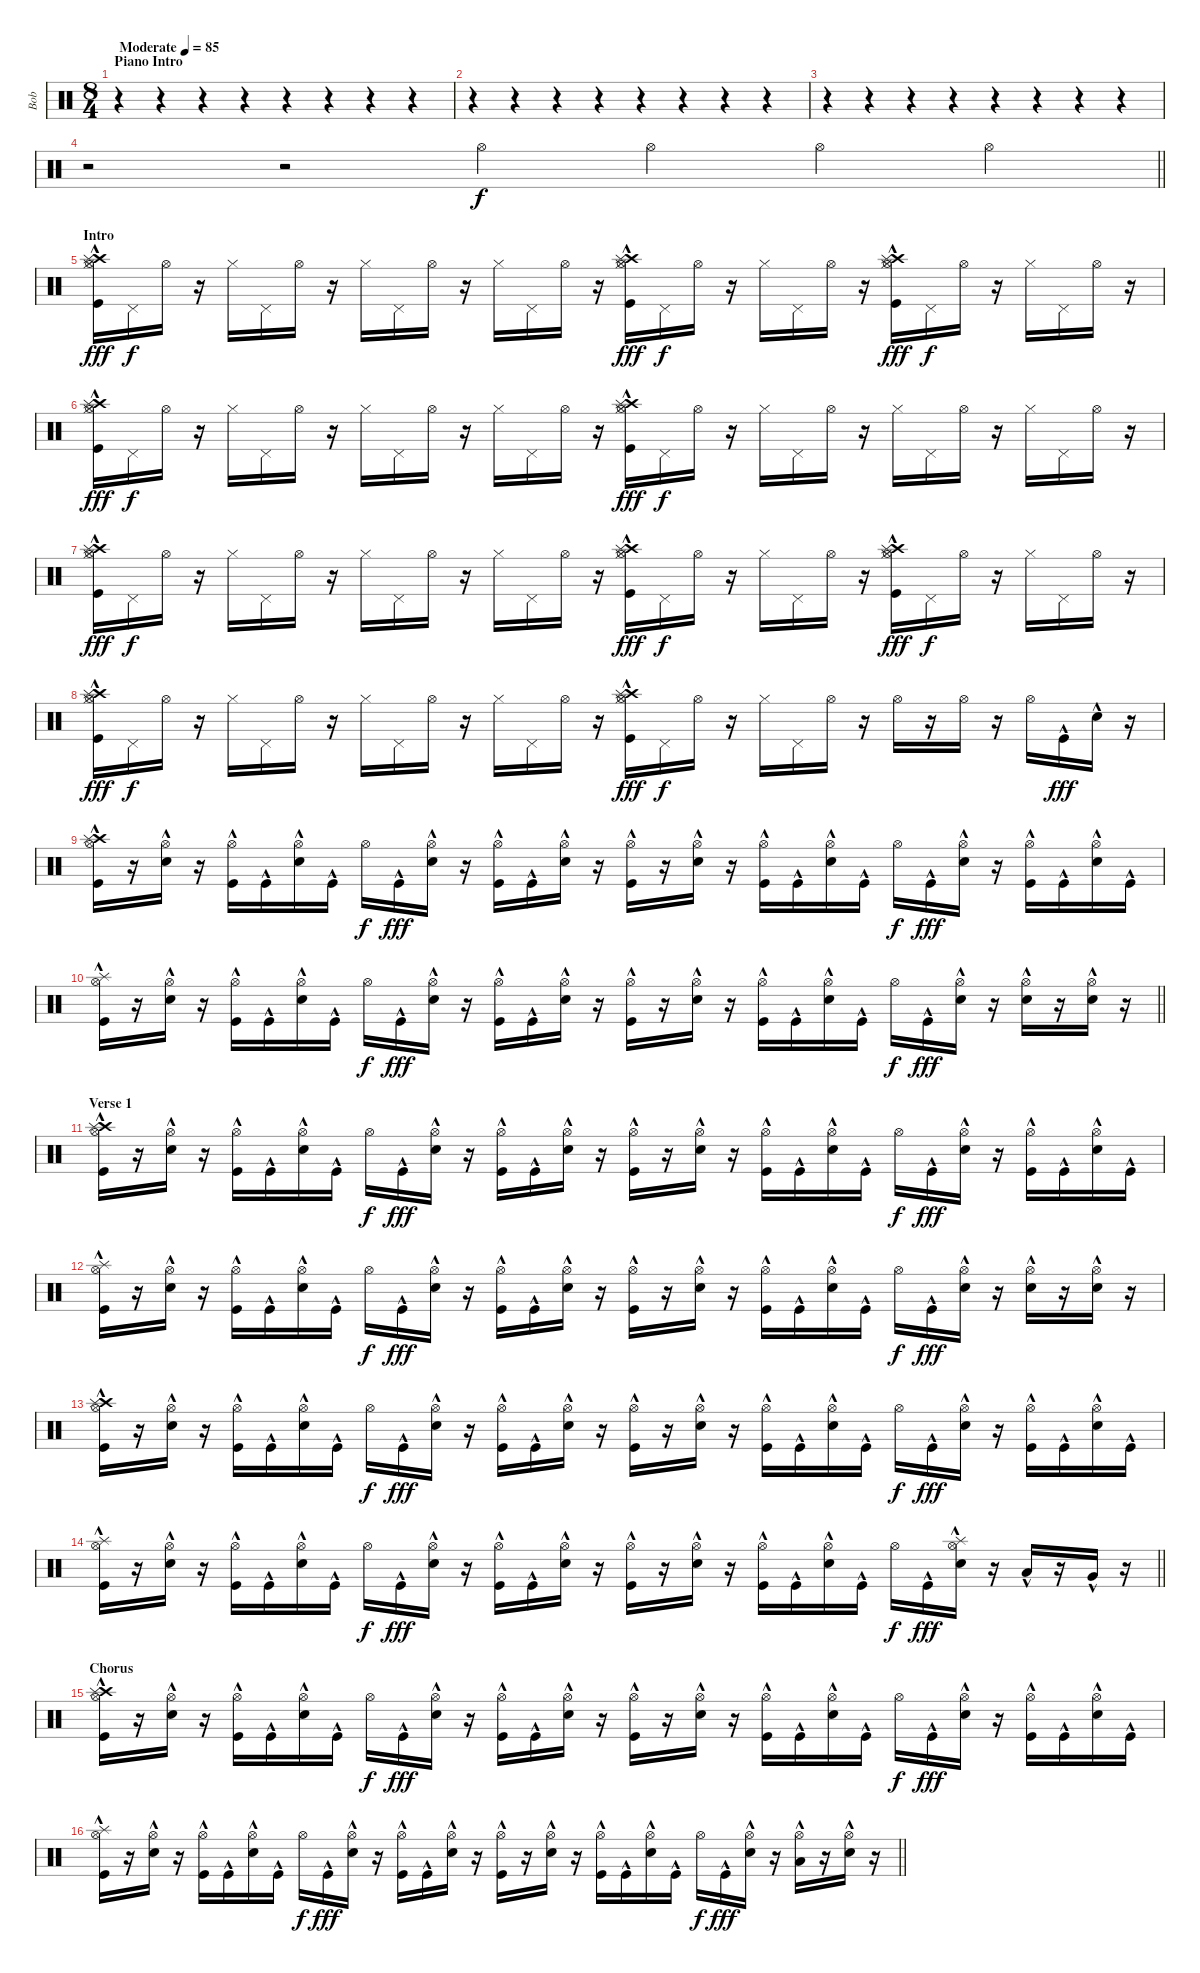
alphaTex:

\track ("Bob" "Bob") {instrument percussion}
\staff {score}
\articulation defaults
\ts (8 4)
\section ("" "Piano Intro")
\tempo (85 "Moderate")
\clef neutral
\ks c
r.4{dy f} r.4 r.4 r.4 r.4 r.4 r.4 r.4 |
r.4 r.4 r.4 r.4 r.4 r.4 r.4 r.4 |
r.4 r.4 r.4 r.4 r.4 r.4 r.4 r.4 |
\barLineRight lightlight
r.2 r.2 "Hi-Hat (open)".4 "Hi-Hat (open)".4 "Hi-Hat (open)".4 "Hi-Hat (open)".4 |
\section ("" "Intro")
("Crash high (hit)" "Splash (hit)"{hac} "Hi-Hat (open)" "Hi-Hat (closed)" "Kick (hit)"{hac}).16{dy fff} "Pedal Hi-Hat (hit)".16{dy f} "Hi-Hat (open)".16 r.16 "Hi-Hat (closed)".16 "Pedal Hi-Hat (hit)".16 "Hi-Hat (open)".16 r.16 "Hi-Hat (closed)".16 "Pedal Hi-Hat (hit)".16 "Hi-Hat (open)".16 r.16 "Hi-Hat (closed)".16 "Pedal Hi-Hat (hit)".16 "Hi-Hat (open)".16 r.16 ("Crash high (hit)" "Splash (hit)"{hac} "Hi-Hat (open)" "Hi-Hat (closed)" "Kick (hit)"{hac}).16{dy fff} "Pedal Hi-Hat (hit)".16{dy f} "Hi-Hat (open)".16 r.16 "Hi-Hat (closed)".16 "Pedal Hi-Hat (hit)".16 "Hi-Hat (open)".16 r.16 ("Crash high (hit)" "Splash (hit)"{hac} "Hi-Hat (open)" "Hi-Hat (closed)" "Kick (hit)"{hac}).16{dy fff} "Pedal Hi-Hat (hit)".16{dy f} "Hi-Hat (open)".16 r.16 "Hi-Hat (closed)".16 "Pedal Hi-Hat (hit)".16 "Hi-Hat (open)".16 r.16 |
("Crash high (hit)" "Splash (hit)"{hac} "Hi-Hat (open)" "Hi-Hat (closed)" "Kick (hit)"{hac}).16{dy fff} "Pedal Hi-Hat (hit)".16{dy f} "Hi-Hat (open)".16 r.16 "Hi-Hat (closed)".16 "Pedal Hi-Hat (hit)".16 "Hi-Hat (open)".16 r.16 "Hi-Hat (closed)".16 "Pedal Hi-Hat (hit)".16 "Hi-Hat (open)".16 r.16 "Hi-Hat (closed)".16 "Pedal Hi-Hat (hit)".16 "Hi-Hat (open)".16 r.16 ("Crash high (hit)" "Splash (hit)"{hac} "Hi-Hat (open)" "Hi-Hat (closed)" "Kick (hit)"{hac}).16{dy fff} "Pedal Hi-Hat (hit)".16{dy f} "Hi-Hat (open)".16 r.16 "Hi-Hat (closed)".16 "Pedal Hi-Hat (hit)".16 "Hi-Hat (open)".16 r.16 "Hi-Hat (closed)".16 "Pedal Hi-Hat (hit)".16 "Hi-Hat (open)".16 r.16 "Hi-Hat (closed)".16 "Pedal Hi-Hat (hit)".16 "Hi-Hat (open)".16 r.16 |
("Crash high (hit)" "Splash (hit)"{hac} "Hi-Hat (open)" "Hi-Hat (closed)" "Kick (hit)"{hac}).16{dy fff} "Pedal Hi-Hat (hit)".16{dy f} "Hi-Hat (open)".16 r.16 "Hi-Hat (closed)".16 "Pedal Hi-Hat (hit)".16 "Hi-Hat (open)".16 r.16 "Hi-Hat (closed)".16 "Pedal Hi-Hat (hit)".16 "Hi-Hat (open)".16 r.16 "Hi-Hat (closed)".16 "Pedal Hi-Hat (hit)".16 "Hi-Hat (open)".16 r.16 ("Crash high (hit)" "Splash (hit)"{hac} "Hi-Hat (open)" "Hi-Hat (closed)" "Kick (hit)"{hac}).16{dy fff} "Pedal Hi-Hat (hit)".16{dy f} "Hi-Hat (open)".16 r.16 "Hi-Hat (closed)".16 "Pedal Hi-Hat (hit)".16 "Hi-Hat (open)".16 r.16 ("Crash high (hit)" "Splash (hit)"{hac} "Hi-Hat (open)" "Hi-Hat (closed)" "Kick (hit)"{hac}).16{dy fff} "Pedal Hi-Hat (hit)".16{dy f} "Hi-Hat (open)".16 r.16 "Hi-Hat (closed)".16 "Pedal Hi-Hat (hit)".16 "Hi-Hat (open)".16 r.16 |
("Crash high (hit)" "Splash (hit)"{hac} "Hi-Hat (open)" "Hi-Hat (closed)" "Kick (hit)"{hac}).16{dy fff} "Pedal Hi-Hat (hit)".16{dy f} "Hi-Hat (open)".16 r.16 "Hi-Hat (closed)".16 "Pedal Hi-Hat (hit)".16 "Hi-Hat (open)".16 r.16 "Hi-Hat (closed)".16 "Pedal Hi-Hat (hit)".16 "Hi-Hat (open)".16 r.16 "Hi-Hat (closed)".16 "Pedal Hi-Hat (hit)".16 "Hi-Hat (open)".16 r.16 ("Crash high (hit)" "Splash (hit)"{hac} "Hi-Hat (open)" "Hi-Hat (closed)" "Kick (hit)"{hac}).16{dy fff} "Pedal Hi-Hat (hit)".16{dy f} "Hi-Hat (open)".16 r.16 "Hi-Hat (closed)".16 "Pedal Hi-Hat (hit)".16 "Hi-Hat (open)".16 r.16 "Hi-Hat (open)".16 r.16 "Hi-Hat (open)".16 r.16 "Hi-Hat (open)".16 "Kick (hit)"{hac}.16{dy fff} "Electric Snare (hit)"{hac}.16 r.16 |
("Crash high (hit)" "Splash (hit)"{hac} "Hi-Hat (open)" "Kick (hit)"{hac}).16 r.16 ("Hi-Hat (open)" "Electric Snare (hit)"{hac}).16 r.16 ("Hi-Hat (open)" "Kick (hit)"{hac}).16 "Kick (hit)"{hac}.16 ("Hi-Hat (open)" "Electric Snare (hit)"{hac}).16 "Kick (hit)"{hac}.16 "Hi-Hat (open)".16{dy f} "Kick (hit)"{hac}.16{dy fff} ("Hi-Hat (open)" "Electric Snare (hit)"{hac}).16 r.16 ("Hi-Hat (open)" "Kick (hit)"{hac}).16 "Kick (hit)"{hac}.16 ("Hi-Hat (open)" "Electric Snare (hit)"{hac}).16 r.16 ("Hi-Hat (open)" "Kick (hit)"{hac}).16 r.16 ("Hi-Hat (open)" "Electric Snare (hit)"{hac}).16 r.16 ("Hi-Hat (open)" "Kick (hit)"{hac}).16 "Kick (hit)"{hac}.16 ("Hi-Hat (open)" "Electric Snare (hit)"{hac}).16 "Kick (hit)"{hac}.16 "Hi-Hat (open)".16{dy f} "Kick (hit)"{hac}.16{dy fff} ("Hi-Hat (open)" "Electric Snare (hit)"{hac}).16 r.16 ("Hi-Hat (open)" "Kick (hit)"{hac}).16 "Kick (hit)"{hac}.16 ("Hi-Hat (open)" "Electric Snare (hit)"{hac}).16 "Kick (hit)"{hac}.16 |
\barLineRight lightlight
("Splash (hit)"{hac} "Hi-Hat (open)" "Kick (hit)"{hac}).16 r.16 ("Hi-Hat (open)" "Electric Snare (hit)"{hac}).16 r.16 ("Hi-Hat (open)" "Kick (hit)"{hac}).16 "Kick (hit)"{hac}.16 ("Hi-Hat (open)" "Electric Snare (hit)"{hac}).16 "Kick (hit)"{hac}.16 "Hi-Hat (open)".16{dy f} "Kick (hit)"{hac}.16{dy fff} ("Hi-Hat (open)" "Electric Snare (hit)"{hac}).16 r.16 ("Hi-Hat (open)" "Kick (hit)"{hac}).16 "Kick (hit)"{hac}.16 ("Hi-Hat (open)" "Electric Snare (hit)"{hac}).16 r.16 ("Hi-Hat (open)" "Kick (hit)"{hac}).16 r.16 ("Hi-Hat (open)" "Electric Snare (hit)"{hac}).16 r.16 ("Hi-Hat (open)" "Kick (hit)"{hac}).16 "Kick (hit)"{hac}.16 ("Hi-Hat (open)" "Electric Snare (hit)"{hac}).16 "Kick (hit)"{hac}.16 "Hi-Hat (open)".16{dy f} "Kick (hit)"{hac}.16{dy fff} ("Hi-Hat (open)" "Electric Snare (hit)"{hac}).16 r.16 ("Hi-Hat (open)" "Electric Snare (hit)"{hac}).16 r.16 ("Hi-Hat (open)" "Electric Snare (hit)"{hac}).16 r.16 |
\section ("" "Verse 1")
("Crash high (hit)" "Splash (hit)"{hac} "Hi-Hat (open)" "Kick (hit)"{hac}).16 r.16 ("Hi-Hat (open)" "Electric Snare (hit)"{hac}).16 r.16 ("Hi-Hat (open)" "Kick (hit)"{hac}).16 "Kick (hit)"{hac}.16 ("Hi-Hat (open)" "Electric Snare (hit)"{hac}).16 "Kick (hit)"{hac}.16 "Hi-Hat (open)".16{dy f} "Kick (hit)"{hac}.16{dy fff} ("Hi-Hat (open)" "Electric Snare (hit)"{hac}).16 r.16 ("Hi-Hat (open)" "Kick (hit)"{hac}).16 "Kick (hit)"{hac}.16 ("Hi-Hat (open)" "Electric Snare (hit)"{hac}).16 r.16 ("Hi-Hat (open)" "Kick (hit)"{hac}).16 r.16 ("Hi-Hat (open)" "Electric Snare (hit)"{hac}).16 r.16 ("Hi-Hat (open)" "Kick (hit)"{hac}).16 "Kick (hit)"{hac}.16 ("Hi-Hat (open)" "Electric Snare (hit)"{hac}).16 "Kick (hit)"{hac}.16 "Hi-Hat (open)".16{dy f} "Kick (hit)"{hac}.16{dy fff} ("Hi-Hat (open)" "Electric Snare (hit)"{hac}).16 r.16 ("Hi-Hat (open)" "Kick (hit)"{hac}).16 "Kick (hit)"{hac}.16 ("Hi-Hat (open)" "Electric Snare (hit)"{hac}).16 "Kick (hit)"{hac}.16 |
("Splash (hit)"{hac} "Hi-Hat (open)" "Kick (hit)"{hac}).16 r.16 ("Hi-Hat (open)" "Electric Snare (hit)"{hac}).16 r.16 ("Hi-Hat (open)" "Kick (hit)"{hac}).16 "Kick (hit)"{hac}.16 ("Hi-Hat (open)" "Electric Snare (hit)"{hac}).16 "Kick (hit)"{hac}.16 "Hi-Hat (open)".16{dy f} "Kick (hit)"{hac}.16{dy fff} ("Hi-Hat (open)" "Electric Snare (hit)"{hac}).16 r.16 ("Hi-Hat (open)" "Kick (hit)"{hac}).16 "Kick (hit)"{hac}.16 ("Hi-Hat (open)" "Electric Snare (hit)"{hac}).16 r.16 ("Hi-Hat (open)" "Kick (hit)"{hac}).16 r.16 ("Hi-Hat (open)" "Electric Snare (hit)"{hac}).16 r.16 ("Hi-Hat (open)" "Kick (hit)"{hac}).16 "Kick (hit)"{hac}.16 ("Hi-Hat (open)" "Electric Snare (hit)"{hac}).16 "Kick (hit)"{hac}.16 "Hi-Hat (open)".16{dy f} "Kick (hit)"{hac}.16{dy fff} ("Hi-Hat (open)" "Electric Snare (hit)"{hac}).16 r.16 ("Hi-Hat (open)" "Electric Snare (hit)"{hac}).16 r.16 ("Hi-Hat (open)" "Electric Snare (hit)"{hac}).16 r.16 |
("Crash high (hit)" "Splash (hit)"{hac} "Hi-Hat (open)" "Kick (hit)"{hac}).16 r.16 ("Hi-Hat (open)" "Electric Snare (hit)"{hac}).16 r.16 ("Hi-Hat (open)" "Kick (hit)"{hac}).16 "Kick (hit)"{hac}.16 ("Hi-Hat (open)" "Electric Snare (hit)"{hac}).16 "Kick (hit)"{hac}.16 "Hi-Hat (open)".16{dy f} "Kick (hit)"{hac}.16{dy fff} ("Hi-Hat (open)" "Electric Snare (hit)"{hac}).16 r.16 ("Hi-Hat (open)" "Kick (hit)"{hac}).16 "Kick (hit)"{hac}.16 ("Hi-Hat (open)" "Electric Snare (hit)"{hac}).16 r.16 ("Hi-Hat (open)" "Kick (hit)"{hac}).16 r.16 ("Hi-Hat (open)" "Electric Snare (hit)"{hac}).16 r.16 ("Hi-Hat (open)" "Kick (hit)"{hac}).16 "Kick (hit)"{hac}.16 ("Hi-Hat (open)" "Electric Snare (hit)"{hac}).16 "Kick (hit)"{hac}.16 "Hi-Hat (open)".16{dy f} "Kick (hit)"{hac}.16{dy fff} ("Hi-Hat (open)" "Electric Snare (hit)"{hac}).16 r.16 ("Hi-Hat (open)" "Kick (hit)"{hac}).16 "Kick (hit)"{hac}.16 ("Hi-Hat (open)" "Electric Snare (hit)"{hac}).16 "Kick (hit)"{hac}.16 |
\barLineRight lightlight
("Splash (hit)"{hac} "Hi-Hat (open)" "Kick (hit)"{hac}).16 r.16 ("Hi-Hat (open)" "Electric Snare (hit)"{hac}).16 r.16 ("Hi-Hat (open)" "Kick (hit)"{hac}).16 "Kick (hit)"{hac}.16 ("Hi-Hat (open)" "Electric Snare (hit)"{hac}).16 "Kick (hit)"{hac}.16 "Hi-Hat (open)".16{dy f} "Kick (hit)"{hac}.16{dy fff} ("Hi-Hat (open)" "Electric Snare (hit)"{hac}).16 r.16 ("Hi-Hat (open)" "Kick (hit)"{hac}).16 "Kick (hit)"{hac}.16 ("Hi-Hat (open)" "Electric Snare (hit)"{hac}).16 r.16 ("Hi-Hat (open)" "Kick (hit)"{hac}).16 r.16 ("Hi-Hat (open)" "Electric Snare (hit)"{hac}).16 r.16 ("Hi-Hat (open)" "Kick (hit)"{hac}).16 "Kick (hit)"{hac}.16 ("Hi-Hat (open)" "Electric Snare (hit)"{hac}).16 "Kick (hit)"{hac}.16 "Hi-Hat (open)".16{dy f} "Kick (hit)"{hac}.16{dy fff} ("Splash (hit)"{hac} "Hi-Hat (open)" "Electric Snare (hit)"{hac}).16 r.16 "Low Tom (hit)"{hac}.16 r.16 "Very Low Tom (hit)"{hac}.16 r.16 |
\section ("" "Chorus")
("Crash high (hit)" "Splash (hit)"{hac} "Hi-Hat (open)" "Kick (hit)"{hac}).16 r.16 ("Hi-Hat (open)" "Electric Snare (hit)"{hac}).16 r.16 ("Hi-Hat (open)" "Kick (hit)"{hac}).16 "Kick (hit)"{hac}.16 ("Hi-Hat (open)" "Electric Snare (hit)"{hac}).16 "Kick (hit)"{hac}.16 "Hi-Hat (open)".16{dy f} "Kick (hit)"{hac}.16{dy fff} ("Hi-Hat (open)" "Electric Snare (hit)"{hac}).16 r.16 ("Hi-Hat (open)" "Kick (hit)"{hac}).16 "Kick (hit)"{hac}.16 ("Hi-Hat (open)" "Electric Snare (hit)"{hac}).16 r.16 ("Hi-Hat (open)" "Kick (hit)"{hac}).16 r.16 ("Hi-Hat (open)" "Electric Snare (hit)"{hac}).16 r.16 ("Hi-Hat (open)" "Kick (hit)"{hac}).16 "Kick (hit)"{hac}.16 ("Hi-Hat (open)" "Electric Snare (hit)"{hac}).16 "Kick (hit)"{hac}.16 "Hi-Hat (open)".16{dy f} "Kick (hit)"{hac}.16{dy fff} ("Hi-Hat (open)" "Electric Snare (hit)"{hac}).16 r.16 ("Hi-Hat (open)" "Kick (hit)"{hac}).16 "Kick (hit)"{hac}.16 ("Hi-Hat (open)" "Electric Snare (hit)"{hac}).16 "Kick (hit)"{hac}.16 |
\barLineRight lightlight
("Splash (hit)"{hac} "Hi-Hat (open)" "Kick (hit)"{hac}).16 r.16 ("Hi-Hat (open)" "Electric Snare (hit)"{hac}).16 r.16 ("Hi-Hat (open)" "Kick (hit)"{hac}).16 "Kick (hit)"{hac}.16 ("Hi-Hat (open)" "Electric Snare (hit)"{hac}).16 "Kick (hit)"{hac}.16 "Hi-Hat (open)".16{dy f} "Kick (hit)"{hac}.16{dy fff} ("Hi-Hat (open)" "Electric Snare (hit)"{hac}).16 r.16 ("Hi-Hat (open)" "Kick (hit)"{hac}).16 "Kick (hit)"{hac}.16 ("Hi-Hat (open)" "Electric Snare (hit)"{hac}).16 r.16 ("Hi-Hat (open)" "Kick (hit)"{hac}).16 r.16 ("Hi-Hat (open)" "Electric Snare (hit)"{hac}).16 r.16 ("Hi-Hat (open)" "Kick (hit)"{hac}).16 "Kick (hit)"{hac}.16 ("Hi-Hat (open)" "Electric Snare (hit)"{hac}).16 "Kick (hit)"{hac}.16 "Hi-Hat (open)".16{dy f} "Kick (hit)"{hac}.16{dy fff} ("Hi-Hat (open)" "Electric Snare (hit)"{hac}).16 r.16 ("Hi-Hat (open)" "Low Tom (hit)"{hac}).16 r.16 ("Hi-Hat (open)" "Electric Snare (hit)"{hac}).16 r.16
